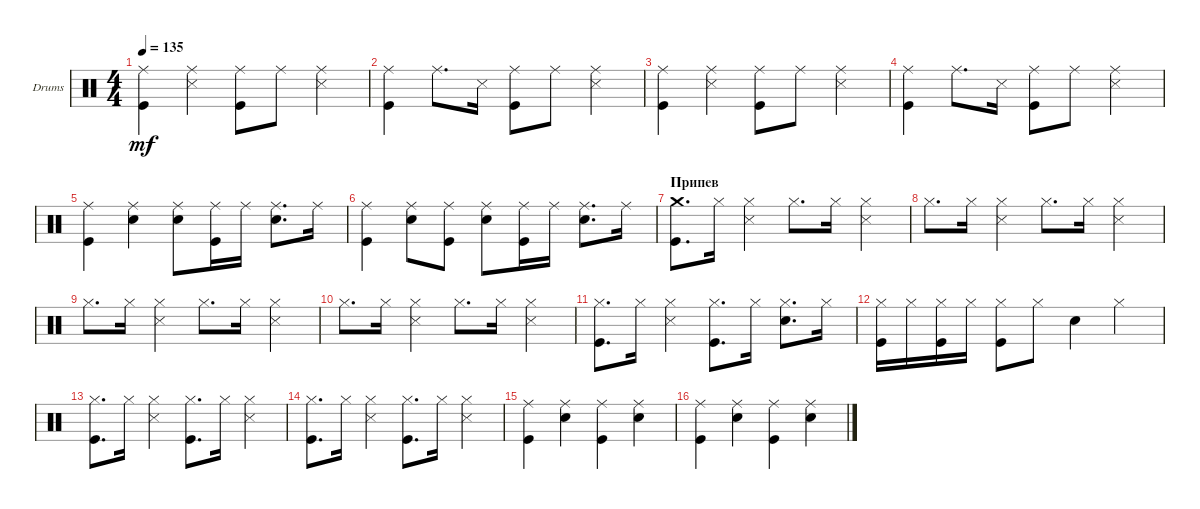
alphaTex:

\defaultSystemsLayout 4
\bracketExtendMode groupsimilarinstruments
\firstSystemTrackNameOrientation horizontal
\otherSystemsTrackNameOrientation horizontal
\track ("Drumkit" "Drums") {instrument percussion}
\staff {score}
\articulation defaults
\ts (4 4)
\tempo 135
\clef neutral
\scale
0.333333
\ks c
("Ride (middle)" "Kick (hit)").4{dy mf} ("Ride (middle)" "Snare (side stick) 3").4 ("Ride (middle)" "Kick (hit)").8 "Ride (middle)".8 ("Ride (middle)" "Snare (side stick) 3").4 |
\scale
0.333333 ("Ride (middle)" "Kick (hit)").4 "Ride (middle)".8{d} "Snare (side stick) 3".16 ("Ride (middle)" "Kick (hit)").8 "Ride (middle)".8 ("Ride (middle)" "Snare (side stick) 3").4 |
\scale
0.333333 ("Ride (middle)" "Kick (hit)").4 ("Ride (middle)" "Snare (side stick) 3").4 ("Ride (middle)" "Kick (hit)").8 "Ride (middle)".8 ("Ride (middle)" "Snare (side stick) 3").4 |
\scale
0.333333 ("Ride (middle)" "Kick (hit)").4 "Ride (middle)".8{d} "Snare (side stick) 3".16 ("Ride (middle)" "Kick (hit)").8 "Ride (middle)".8 ("Ride (middle)" "Snare (side stick) 3").4 |
("Ride (middle)" "Kick (hit)").4 ("Ride (middle)" "Snare (hit) 2").4 ("Ride (middle)" "Snare (hit) 2").8 ("Ride (middle)" "Kick (hit)").16 "Ride (middle)".16 ("Ride (middle)" "Snare (hit) 2").8{d} "Ride (middle)".16 |
("Ride (middle)" "Kick (hit)").4 ("Ride (middle)" "Snare (hit) 2").8 ("Ride (middle)" "Kick (hit)").8 ("Ride (middle)" "Snare (hit) 2").8 ("Ride (middle)" "Kick (hit)").16 "Ride (middle)".16 ("Ride (middle)" "Snare (hit) 2").8{d} "Ride (middle)".16 |
\section ("" "Припев")
\scale
0.333333 ("Crash medium (hit)" "Kick (hit)").8{d} "Hi-Hat (closed)".16 ("Hi-Hat (closed)" "Snare (side stick) 3").4 "Hi-Hat (closed)".8{d} "Hi-Hat (closed)".16 ("Hi-Hat (closed)" "Snare (side stick) 3").4 |
\scale
0.333333 "Hi-Hat (closed)".8{d} "Hi-Hat (closed)".16 ("Hi-Hat (closed)" "Snare (side stick) 3").4 "Hi-Hat (closed)".8{d} "Hi-Hat (closed)".16 ("Hi-Hat (closed)" "Snare (side stick) 3").4 |
\scale
0.333333 "Hi-Hat (closed)".8{d} "Hi-Hat (closed)".16 ("Hi-Hat (closed)" "Snare (side stick) 3").4 "Hi-Hat (closed)".8{d} "Hi-Hat (closed)".16 ("Hi-Hat (closed)" "Snare (side stick) 3").4 |
\scale
0.333333 "Hi-Hat (closed)".8{d} "Hi-Hat (closed)".16 ("Hi-Hat (closed)" "Snare (side stick) 3").4 "Hi-Hat (closed)".8{d} "Hi-Hat (closed)".16 ("Hi-Hat (closed)" "Snare (side stick) 3").4 |
\scale
0.333333 ("Hi-Hat (closed)" "Kick (hit)").8{d} "Hi-Hat (closed)".16 ("Hi-Hat (closed)" "Snare (side stick) 3").4 ("Hi-Hat (closed)" "Kick (hit)").8{d} "Hi-Hat (closed)".16 ("Hi-Hat (closed)" "Snare (hit) 2").8{d} "Hi-Hat (closed)".16 |
("Hi-Hat (closed)" "Kick (hit)").16 "Hi-Hat (closed)".16 ("Hi-Hat (closed)" "Kick (hit)").16 "Hi-Hat (closed)".16 ("Hi-Hat (closed)" "Kick (hit)").8 "Hi-Hat (closed)".8 "Snare (hit) 2".4 "Hi-Hat (closed)".4 |
("Hi-Hat (closed)" "Kick (hit)").8{d} "Hi-Hat (closed)".16 ("Hi-Hat (closed)" "Snare (side stick) 3").4 ("Hi-Hat (closed)" "Kick (hit)").8{d} "Hi-Hat (closed)".16 ("Hi-Hat (closed)" "Snare (side stick) 3").4 |
("Hi-Hat (closed)" "Kick (hit)").8{d} "Hi-Hat (closed)".16 ("Hi-Hat (closed)" "Snare (side stick) 3").4 ("Hi-Hat (closed)" "Kick (hit)").8{d} "Hi-Hat (closed)".16 ("Hi-Hat (closed)" "Snare (side stick) 3").4 |
("Ride (middle)" "Kick (hit)").4 ("Ride (middle)" "Snare (hit) 2").4 ("Ride (middle)" "Kick (hit)").4 ("Ride (middle)" "Snare (hit) 2").4 |
("Ride (middle)" "Kick (hit)").4 ("Ride (middle)" "Snare (hit) 2").4 ("Ride (middle)" "Kick (hit)").4 ("Ride (middle)" "Snare (hit) 2").4
